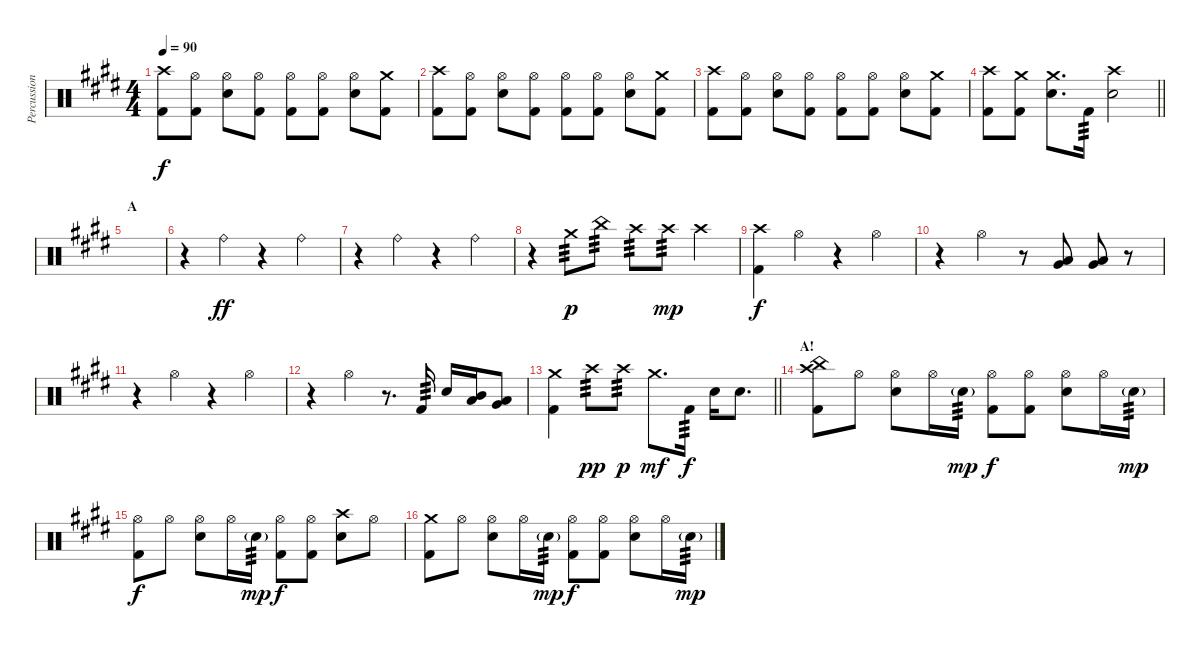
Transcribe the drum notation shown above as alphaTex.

\track ("Percussion" "Percussion") {instrument percussion}
\staff {score}
\articulation defaults
\ts (4 4)
\tempo 90
\clef neutral
\ks c#minor
("Crash high (hit)" "Kick (hit) 2").8{dy f} ("Hi-Hat (open)" "Kick (hit) 2").8 ("Hi-Hat (open)" "Snare (hit) 2").8 ("Hi-Hat (open)" "Kick (hit) 2").8 ("Hi-Hat (open)" "Kick (hit) 2").8 ("Hi-Hat (open)" "Kick (hit) 2").8 ("Hi-Hat (open)" "Snare (hit) 2").8 ("Crash medium (hit)" "Kick (hit) 2").8 |
("Crash high (hit)" "Kick (hit) 2").8 ("Hi-Hat (open)" "Kick (hit) 2").8 ("Hi-Hat (open)" "Snare (hit) 2").8 ("Hi-Hat (open)" "Kick (hit) 2").8 ("Hi-Hat (open)" "Kick (hit) 2").8 ("Hi-Hat (open)" "Kick (hit) 2").8 ("Hi-Hat (open)" "Snare (hit) 2").8 ("Crash medium (hit)" "Kick (hit) 2").8 |
("Crash high (hit)" "Kick (hit) 2").8 ("Hi-Hat (open)" "Kick (hit) 2").8 ("Hi-Hat (open)" "Snare (hit) 2").8 ("Hi-Hat (open)" "Kick (hit) 2").8 ("Hi-Hat (open)" "Kick (hit) 2").8 ("Hi-Hat (open)" "Kick (hit) 2").8 ("Hi-Hat (open)" "Snare (hit) 2").8 ("Crash medium (hit)" "Kick (hit) 2").8 |
\barLineRight lightlight
("Crash high (hit)" "Kick (hit) 2").8 ("Crash medium (hit)" "Kick (hit) 2").8 ("Crash medium (hit)" "Snare (hit) 2").8{d} "Kick (hit) 2".16{tp 3} ("Crash high (hit)" "Snare (hit) 2").2 |
\section ("" "A")
|
r.4{volume 0} "Ride (bell)".4{dy ff volume 13} r.4 "Ride (bell)".4 |
r.4 "Ride (bell)".4 r.4 "Ride (bell)".4 |
r.4 "Crash medium (hit)".8{tp 3 dy p} "China (hit)".8{tp 3} "Crash high (hit)".8{tp 3} "Crash high (hit)".8{tp 3 dy mp} "Crash high (hit)".4 |
("Crash high (hit)" "Kick (hit) 2").4{dy f} "Hi-Hat (open)".4 r.4 "Hi-Hat (open)".4 |
r.4 "Hi-Hat (open)".4 r.8 ("Low Tom (hit)" "Very Low Tom (hit)").8{bu 60} ("Low Tom (hit)" "Very Low Tom (hit)").8{bu 60} r.8 |
r.4 "Hi-Hat (open)".4 r.4 "Hi-Hat (open)".4 |
r.4 "Hi-Hat (open)".4 r.8{d} "Kick (hit) 2".16{tp 3} "Snare (hit) 2".16 ("Mid Tom (hit)" "Low Tom (hit)").16{bu 60} ("Low Tom (hit)" "Very Low Tom (hit)").8{bu 60} |
\barLineRight lightlight
("Crash medium (hit)" "Kick (hit) 2").4 "Crash high (hit)".8{tp 3 dy pp} "Crash high (hit)".8{tp 3 dy p} "Crash medium (hit)".8{d dy mf} "Kick (hit) 2".16{tp 3 dy f} "Snare (hit) 2".16 "Snare (hit) 2".8{d} |
\section ("" "A!")
("Crash high (hit)" "China (hit)" "Kick (hit) 2").8 "Hi-Hat (open)".8 ("Hi-Hat (open)" "Snare (hit) 2").8 "Hi-Hat (open)".16 "Snare (hit) 2"{g}.16{tp 3 dy mp} ("Hi-Hat (open)" "Kick (hit) 2").8{dy f} ("Hi-Hat (open)" "Kick (hit) 2").8 ("Hi-Hat (open)" "Snare (hit) 2").8 "Hi-Hat (open)".16 "Snare (hit) 2"{g}.16{tp 3 dy mp} |
("Hi-Hat (open)" "Kick (hit) 2").8{dy f} "Hi-Hat (open)".8 ("Hi-Hat (open)" "Snare (hit) 2").8 "Hi-Hat (open)".16 "Snare (hit) 2"{g}.16{tp 3 dy mp} ("Hi-Hat (open)" "Kick (hit) 2").8{dy f} ("Hi-Hat (open)" "Kick (hit) 2").8 ("Crash high (hit)" "Snare (hit) 2").8 "Hi-Hat (open)".8 |
("Crash medium (hit)" "Kick (hit) 2").8 "Hi-Hat (open)".8 ("Hi-Hat (open)" "Snare (hit) 2").8 "Hi-Hat (open)".16 "Snare (hit) 2"{g}.16{tp 3 dy mp} ("Hi-Hat (open)" "Kick (hit) 2").8{dy f} ("Hi-Hat (open)" "Kick (hit) 2").8 ("Hi-Hat (open)" "Snare (hit) 2").8 "Hi-Hat (open)".16 "Snare (hit) 2"{g}.16{tp 3 dy mp}
